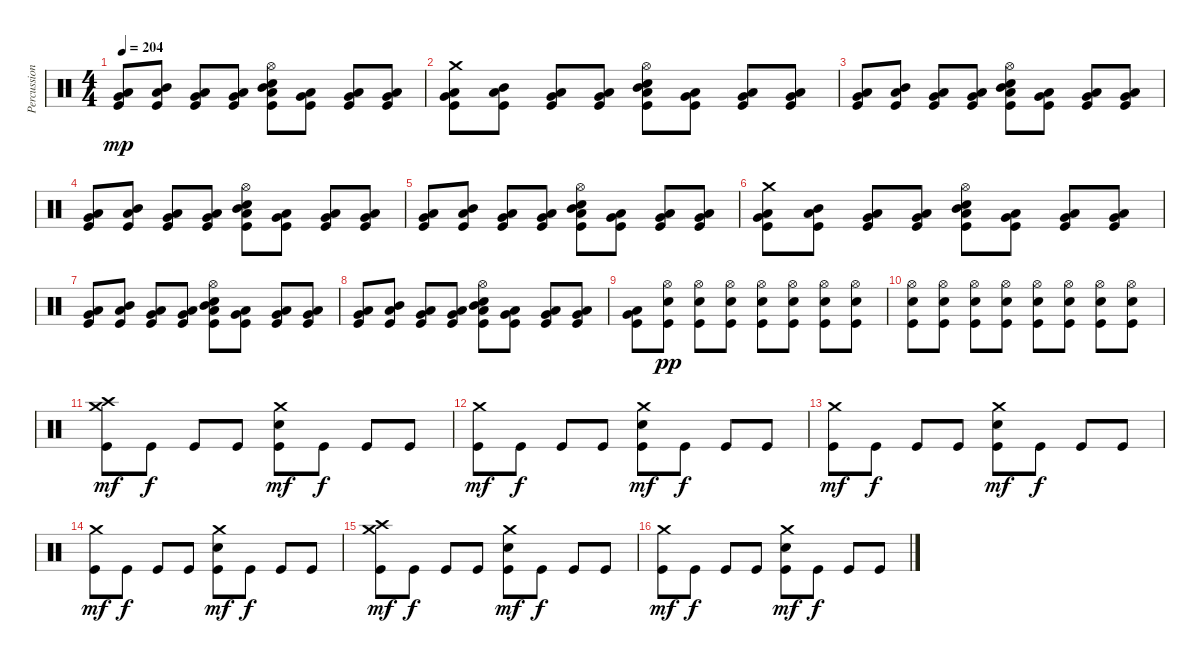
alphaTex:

\track ("Percussions" "Percussion") {instrument percussion}
\staff {score}
\articulation defaults
\ts (4 4)
\tempo 204
\clef neutral
\ks c
("Kick (hit)" "Very Low Tom (hit)" "Low Tom (hit)").8{dy mp} ("Kick (hit)" "Low Tom (hit)" "Mid Tom (hit)").8 ("Kick (hit)" "Very Low Tom (hit)" "Low Tom (hit)").8 ("Kick (hit)" "Low Floor Tom (hit)" "Very Low Tom (hit)").8 ("Kick (hit)" "Electric Snare (hit)" "Low Tom (hit)" "Mid Tom (hit)" "Hi-Hat (open)").8 ("Kick (hit)" "Very Low Tom (hit)" "Low Tom (hit)").8 ("Kick (hit)" "Low Floor Tom (hit)" "Very Low Tom (hit)").8 ("Kick (hit)" "Very Low Tom (hit)" "Low Tom (hit)").8 |
("Kick (hit)" "Very Low Tom (hit)" "Low Tom (hit)" "Crash medium (hit)").8 ("Kick (hit)" "Low Tom (hit)" "Mid Tom (hit)").8 ("Kick (hit)" "Very Low Tom (hit)" "Low Tom (hit)").8 ("Kick (hit)" "Low Floor Tom (hit)" "Very Low Tom (hit)").8 ("Kick (hit)" "Electric Snare (hit)" "Low Tom (hit)" "Mid Tom (hit)" "Hi-Hat (open)").8 ("Kick (hit)" "Very Low Tom (hit)" "Low Tom (hit)").8 ("Kick (hit)" "Low Floor Tom (hit)" "Very Low Tom (hit)").8 ("Kick (hit)" "Very Low Tom (hit)" "Low Tom (hit)").8 |
("Kick (hit)" "Very Low Tom (hit)" "Low Tom (hit)").8 ("Kick (hit)" "Low Tom (hit)" "Mid Tom (hit)").8 ("Kick (hit)" "Very Low Tom (hit)" "Low Tom (hit)").8 ("Kick (hit)" "Low Floor Tom (hit)" "Very Low Tom (hit)").8 ("Kick (hit)" "Electric Snare (hit)" "Low Tom (hit)" "Mid Tom (hit)" "Hi-Hat (open)").8 ("Kick (hit)" "Very Low Tom (hit)" "Low Tom (hit)").8 ("Kick (hit)" "Low Floor Tom (hit)" "Very Low Tom (hit)").8 ("Kick (hit)" "Very Low Tom (hit)" "Low Tom (hit)").8 |
("Kick (hit)" "Very Low Tom (hit)" "Low Tom (hit)").8 ("Kick (hit)" "Low Tom (hit)" "Mid Tom (hit)").8 ("Kick (hit)" "Very Low Tom (hit)" "Low Tom (hit)").8 ("Kick (hit)" "Low Floor Tom (hit)" "Very Low Tom (hit)").8 ("Kick (hit)" "Electric Snare (hit)" "Low Tom (hit)" "Mid Tom (hit)" "Hi-Hat (open)").8 ("Kick (hit)" "Very Low Tom (hit)" "Low Tom (hit)").8 ("Kick (hit)" "Low Floor Tom (hit)" "Very Low Tom (hit)").8 ("Kick (hit)" "Very Low Tom (hit)" "Low Tom (hit)").8 |
("Kick (hit)" "Very Low Tom (hit)" "Low Tom (hit)").8 ("Kick (hit)" "Low Tom (hit)" "Mid Tom (hit)").8 ("Kick (hit)" "Very Low Tom (hit)" "Low Tom (hit)").8 ("Kick (hit)" "Low Floor Tom (hit)" "Very Low Tom (hit)").8 ("Kick (hit)" "Electric Snare (hit)" "Low Tom (hit)" "Mid Tom (hit)" "Hi-Hat (open)").8 ("Kick (hit)" "Very Low Tom (hit)" "Low Tom (hit)").8 ("Kick (hit)" "Low Floor Tom (hit)" "Very Low Tom (hit)").8 ("Kick (hit)" "Very Low Tom (hit)" "Low Tom (hit)").8 |
("Kick (hit)" "Very Low Tom (hit)" "Low Tom (hit)" "Crash medium (hit)").8 ("Kick (hit)" "Low Tom (hit)" "Mid Tom (hit)").8 ("Kick (hit)" "Very Low Tom (hit)" "Low Tom (hit)").8 ("Kick (hit)" "Low Floor Tom (hit)" "Very Low Tom (hit)").8 ("Kick (hit)" "Electric Snare (hit)" "Low Tom (hit)" "Mid Tom (hit)" "Hi-Hat (open)").8 ("Kick (hit)" "Very Low Tom (hit)" "Low Tom (hit)").8 ("Kick (hit)" "Low Floor Tom (hit)" "Very Low Tom (hit)").8 ("Kick (hit)" "Very Low Tom (hit)" "Low Tom (hit)").8 |
("Kick (hit)" "Very Low Tom (hit)" "Low Tom (hit)").8 ("Kick (hit)" "Low Tom (hit)" "Mid Tom (hit)").8 ("Kick (hit)" "Very Low Tom (hit)" "Low Tom (hit)").8 ("Kick (hit)" "Low Floor Tom (hit)" "Very Low Tom (hit)").8 ("Kick (hit)" "Electric Snare (hit)" "Low Tom (hit)" "Mid Tom (hit)" "Hi-Hat (open)").8 ("Kick (hit)" "Very Low Tom (hit)" "Low Tom (hit)").8 ("Kick (hit)" "Low Floor Tom (hit)" "Very Low Tom (hit)").8 ("Kick (hit)" "Very Low Tom (hit)" "Low Tom (hit)").8 |
("Kick (hit)" "Very Low Tom (hit)" "Low Tom (hit)").8 ("Kick (hit)" "Low Tom (hit)" "Mid Tom (hit)").8 ("Kick (hit)" "Very Low Tom (hit)" "Low Tom (hit)").8 ("Kick (hit)" "Low Floor Tom (hit)" "Very Low Tom (hit)").8 ("Kick (hit)" "Electric Snare (hit)" "Low Tom (hit)" "Mid Tom (hit)" "Hi-Hat (open)").8 ("Kick (hit)" "Very Low Tom (hit)" "Low Tom (hit)").8 ("Kick (hit)" "Low Floor Tom (hit)" "Very Low Tom (hit)").8 ("Kick (hit)" "Very Low Tom (hit)" "Low Tom (hit)").8 |
("Kick (hit)" "Very Low Tom (hit)" "Low Tom (hit)").8 ("Kick (hit)" "Electric Snare (hit)" "Hi-Hat (open)").8{dy pp} ("Kick (hit)" "Electric Snare (hit)" "Hi-Hat (open)").8 ("Kick (hit)" "Electric Snare (hit)" "Hi-Hat (open)").8 ("Kick (hit)" "Electric Snare (hit)" "Hi-Hat (open)").8 ("Kick (hit)" "Electric Snare (hit)" "Hi-Hat (open)").8 ("Kick (hit)" "Electric Snare (hit)" "Hi-Hat (open)").8 ("Kick (hit)" "Electric Snare (hit)" "Hi-Hat (open)").8 |
("Kick (hit)" "Electric Snare (hit)" "Hi-Hat (open)").8 ("Kick (hit)" "Electric Snare (hit)" "Hi-Hat (open)").8 ("Kick (hit)" "Electric Snare (hit)" "Hi-Hat (open)").8 ("Kick (hit)" "Electric Snare (hit)" "Hi-Hat (open)").8 ("Kick (hit)" "Electric Snare (hit)" "Hi-Hat (open)").8 ("Kick (hit)" "Electric Snare (hit)" "Hi-Hat (open)").8 ("Kick (hit)" "Electric Snare (hit)" "Hi-Hat (open)").8 ("Kick (hit)" "Electric Snare (hit)" "Hi-Hat (open)").8 |
("Kick (hit)" "Crash medium (hit)" "Crash high (hit)").8{dy mf} "Kick (hit)".8{dy f} "Kick (hit)".8 "Kick (hit)".8 ("Kick (hit)" "Electric Snare (hit)" "Crash medium (hit)").8{dy mf} "Kick (hit)".8{dy f} "Kick (hit)".8 "Kick (hit)".8 |
("Kick (hit)" "Crash medium (hit)").8{dy mf} "Kick (hit)".8{dy f} "Kick (hit)".8 "Kick (hit)".8 ("Kick (hit)" "Electric Snare (hit)" "Crash medium (hit)").8{dy mf} "Kick (hit)".8{dy f} "Kick (hit)".8 "Kick (hit)".8 |
("Kick (hit)" "Crash medium (hit)").8{dy mf} "Kick (hit)".8{dy f} "Kick (hit)".8 "Kick (hit)".8 ("Kick (hit)" "Electric Snare (hit)" "Crash medium (hit)").8{dy mf} "Kick (hit)".8{dy f} "Kick (hit)".8 "Kick (hit)".8 |
("Kick (hit)" "Crash medium (hit)").8{dy mf} "Kick (hit)".8{dy f} "Kick (hit)".8 "Kick (hit)".8 ("Kick (hit)" "Electric Snare (hit)" "Crash medium (hit)").8{dy mf} "Kick (hit)".8{dy f} "Kick (hit)".8 "Kick (hit)".8 |
("Kick (hit)" "Crash medium (hit)" "Crash high (hit)").8{dy mf} "Kick (hit)".8{dy f} "Kick (hit)".8 "Kick (hit)".8 ("Kick (hit)" "Electric Snare (hit)" "Crash medium (hit)").8{dy mf} "Kick (hit)".8{dy f} "Kick (hit)".8 "Kick (hit)".8 |
("Kick (hit)" "Crash medium (hit)").8{dy mf} "Kick (hit)".8{dy f} "Kick (hit)".8 "Kick (hit)".8 ("Kick (hit)" "Electric Snare (hit)" "Crash medium (hit)").8{dy mf} "Kick (hit)".8{dy f} "Kick (hit)".8 "Kick (hit)".8
